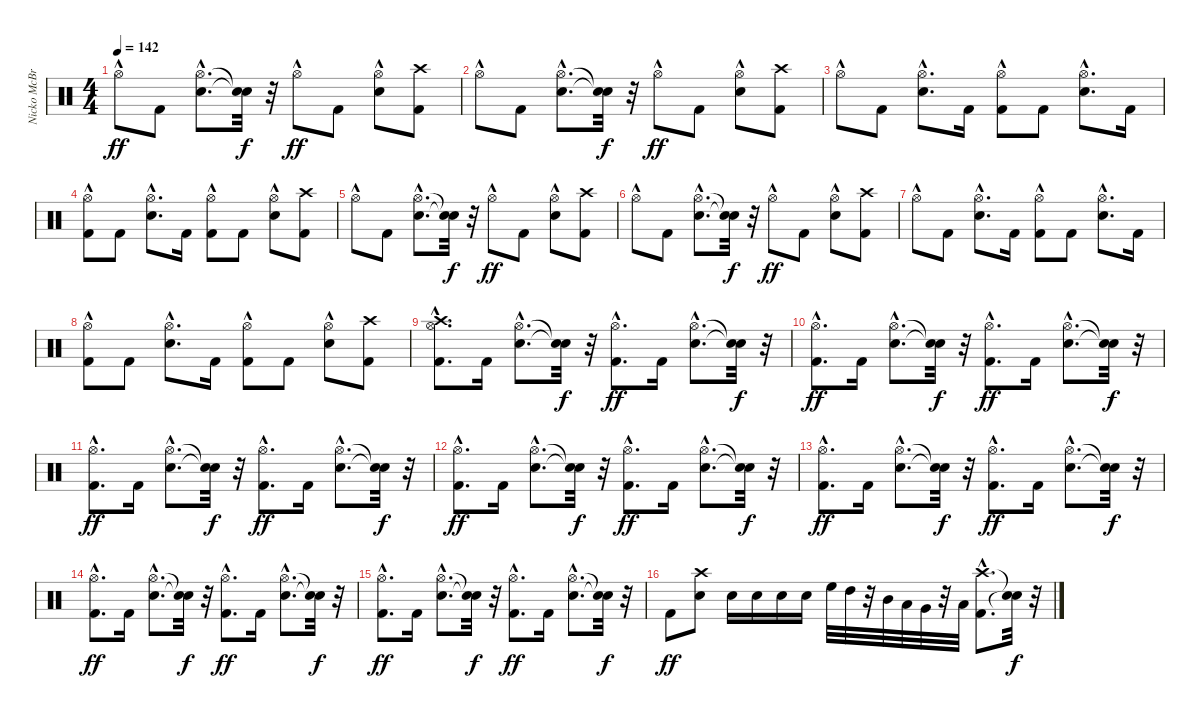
\track ("Nicko McBrain" "Nicko McBr") {instrument percussion}
\staff {score}
\articulation defaults
\ts (4 4)
\tempo 142
\clef neutral
\ks c "Hi-Hat (open)"{hac}.8{dy ff} "Kick (hit) 2".8
("Snare (hit) 2"{hac} "Hi-Hat (open)"{hac}).8{d} ("Snare (hit)"{t} "Snare (hit)"{t}).32{dy f} r.32 "Hi-Hat (open)"{hac}.8{dy ff} "Kick (hit) 2".8 ("Snare (hit) 2" "Hi-Hat (open)"{hac}).8 ("Kick (hit) 2" "Crash high (hit)").8 |
"Hi-Hat (open)"{hac}.8 "Kick (hit) 2".8 ("Snare (hit) 2"{hac} "Hi-Hat (open)"{hac}).8{d} ("Snare (hit)"{t} "Snare (hit)"{t}).32{dy f} r.32 "Hi-Hat (open)"{hac}.8{dy ff} "Kick (hit) 2".8 ("Snare (hit) 2" "Hi-Hat (open)"{hac}).8 ("Kick (hit) 2" "Crash high (hit)").8 |
"Hi-Hat (open)"{hac}.8 "Kick (hit) 2".8 ("Snare (hit) 2"{hac} "Hi-Hat (open)"{hac}).8{d} "Kick (hit) 2".16 ("Kick (hit) 2" "Hi-Hat (open)"{hac}).8 "Kick (hit) 2".8 ("Snare (hit) 2"{hac} "Hi-Hat (open)"{hac}).8{d} "Kick (hit) 2".16 |
("Kick (hit) 2" "Hi-Hat (open)"{hac}).8 "Kick (hit) 2".8 ("Snare (hit) 2"{hac} "Hi-Hat (open)"{hac}).8{d} "Kick (hit) 2".16 ("Kick (hit) 2" "Hi-Hat (open)"{hac}).8 "Kick (hit) 2".8 ("Snare (hit) 2" "Hi-Hat (open)"{hac}).8 ("Kick (hit) 2" "Crash high (hit)").8 |
"Hi-Hat (open)"{hac}.8 "Kick (hit) 2".8 ("Snare (hit) 2"{hac} "Hi-Hat (open)"{hac}).8{d} ("Snare (hit)"{t} "Snare (hit)"{t}).32{dy f} r.32 "Hi-Hat (open)"{hac}.8{dy ff} "Kick (hit) 2".8 ("Snare (hit) 2" "Hi-Hat (open)"{hac}).8 ("Kick (hit) 2" "Crash high (hit)").8 |
"Hi-Hat (open)"{hac}.8 "Kick (hit) 2".8 ("Snare (hit) 2"{hac} "Hi-Hat (open)"{hac}).8{d} ("Snare (hit)"{t} "Snare (hit)"{t}).32{dy f} r.32 "Hi-Hat (open)"{hac}.8{dy ff} "Kick (hit) 2".8 ("Snare (hit) 2" "Hi-Hat (open)"{hac}).8 ("Kick (hit) 2" "Crash high (hit)").8 |
"Hi-Hat (open)"{hac}.8 "Kick (hit) 2".8 ("Snare (hit) 2"{hac} "Hi-Hat (open)"{hac}).8{d} "Kick (hit) 2".16 ("Kick (hit) 2" "Hi-Hat (open)"{hac}).8 "Kick (hit) 2".8 ("Snare (hit) 2"{hac} "Hi-Hat (open)"{hac}).8{d} "Kick (hit) 2".16 |
("Kick (hit) 2" "Hi-Hat (open)"{hac}).8 "Kick (hit) 2".8 ("Snare (hit) 2"{hac} "Hi-Hat (open)"{hac}).8{d} "Kick (hit) 2".16 ("Kick (hit) 2" "Hi-Hat (open)"{hac}).8 "Kick (hit) 2".8 ("Snare (hit) 2" "Hi-Hat (open)"{hac}).8 ("Kick (hit) 2" "Crash high (hit)").8 |
("Kick (hit) 2"{hac} "Hi-Hat (open)"{hac} "Crash high (hit)"{hac}).8{d} "Kick (hit) 2".16 ("Snare (hit) 2"{hac} "Hi-Hat (open)"{hac}).8{d} ("Snare (hit)"{t} "Snare (hit)"{t}).32{dy f} r.32 ("Kick (hit) 2"{hac} "Hi-Hat (open)"{hac}).8{d dy ff} "Kick (hit) 2".16 ("Snare (hit) 2"{hac} "Hi-Hat (open)"{hac}).8{d} ("Snare (hit)"{t} "Snare (hit)"{t}).32{dy f} r.32 |
("Kick (hit) 2"{hac} "Hi-Hat (open)"{hac}).8{d dy ff} "Kick (hit) 2".16 ("Snare (hit) 2"{hac} "Hi-Hat (open)"{hac}).8{d} ("Snare (hit)"{t} "Snare (hit)"{t}).32{dy f} r.32 ("Kick (hit) 2"{hac} "Hi-Hat (open)"{hac}).8{d dy ff} "Kick (hit) 2".16 ("Snare (hit) 2"{hac} "Hi-Hat (open)"{hac}).8{d} ("Snare (hit)"{t} "Snare (hit)"{t}).32{dy f} r.32 |
("Kick (hit) 2"{hac} "Hi-Hat (open)"{hac}).8{d dy ff} "Kick (hit) 2".16 ("Snare (hit) 2"{hac} "Hi-Hat (open)"{hac}).8{d} ("Snare (hit)"{t} "Snare (hit)"{t}).32{dy f} r.32 ("Kick (hit) 2"{hac} "Hi-Hat (open)"{hac}).8{d dy ff} "Kick (hit) 2".16 ("Snare (hit) 2"{hac} "Hi-Hat (open)"{hac}).8{d} ("Snare (hit)"{t} "Snare (hit)"{t}).32{dy f} r.32 |
("Kick (hit) 2"{hac} "Hi-Hat (open)"{hac}).8{d dy ff} "Kick (hit) 2".16 ("Snare (hit) 2"{hac} "Hi-Hat (open)"{hac}).8{d} ("Snare (hit)"{t} "Snare (hit)"{t}).32{dy f} r.32 ("Kick (hit) 2"{hac} "Hi-Hat (open)"{hac}).8{d dy ff} "Kick (hit) 2".16 ("Snare (hit) 2"{hac} "Hi-Hat (open)"{hac}).8{d} ("Snare (hit)"{t} "Snare (hit)"{t}).32{dy f} r.32 |
("Kick (hit) 2"{hac} "Hi-Hat (open)"{hac}).8{d dy ff} "Kick (hit) 2".16 ("Snare (hit) 2"{hac} "Hi-Hat (open)"{hac}).8{d} ("Snare (hit)"{t} "Snare (hit)"{t}).32{dy f} r.32 ("Kick (hit) 2"{hac} "Hi-Hat (open)"{hac}).8{d dy ff} "Kick (hit) 2".16 ("Snare (hit) 2"{hac} "Hi-Hat (open)"{hac}).8{d} ("Snare (hit)"{t} "Snare (hit)"{t}).32{dy f} r.32 |
("Kick (hit) 2"{hac} "Hi-Hat (open)"{hac}).8{d dy ff} "Kick (hit) 2".16 ("Snare (hit) 2"{hac} "Hi-Hat (open)"{hac}).8{d} ("Snare (hit)"{t} "Snare (hit)"{t}).32{dy f} r.32 ("Kick (hit) 2"{hac} "Hi-Hat (open)"{hac}).8{d dy ff} "Kick (hit) 2".16 ("Snare (hit) 2"{hac} "Hi-Hat (open)"{hac}).8{d} ("Snare (hit)"{t} "Snare (hit)"{t}).32{dy f} r.32 |
("Kick (hit) 2"{hac} "Hi-Hat (open)"{hac}).8{d dy ff} "Kick (hit) 2".16 ("Snare (hit) 2"{hac} "Hi-Hat (open)"{hac}).8{d} ("Snare (hit)"{t} "Snare (hit)"{t}).32{dy f} r.32 ("Kick (hit) 2"{hac} "Hi-Hat (open)"{hac}).8{d dy ff} "Kick (hit) 2".16 ("Snare (hit) 2"{hac} "Hi-Hat (open)"{hac}).8{d} ("Snare (hit)"{t} "Snare (hit)"{t}).32{dy f} r.32 |
"Kick (hit) 2".8{dy ff} ("Snare (hit) 2" "Crash high (hit)").8 "Snare (hit) 2".16 "Snare (hit) 2".16 "Snare (hit) 2".16 "Snare (hit) 2".16 "High Floor Tom (hit)".32 "High Tom (hit)".32 r.32 "Mid Tom (hit)".32 "Low Tom (hit)".32 "Very Low Tom (hit)".32 r.32 "Low Floor Tom (hit)".32 ("Kick (hit) 2"{hac} "Crash high (hit)"{hac}).8{d} ("Snare (hit)"{t} "Snare (hit)"{t}).32{dy f} r.32
